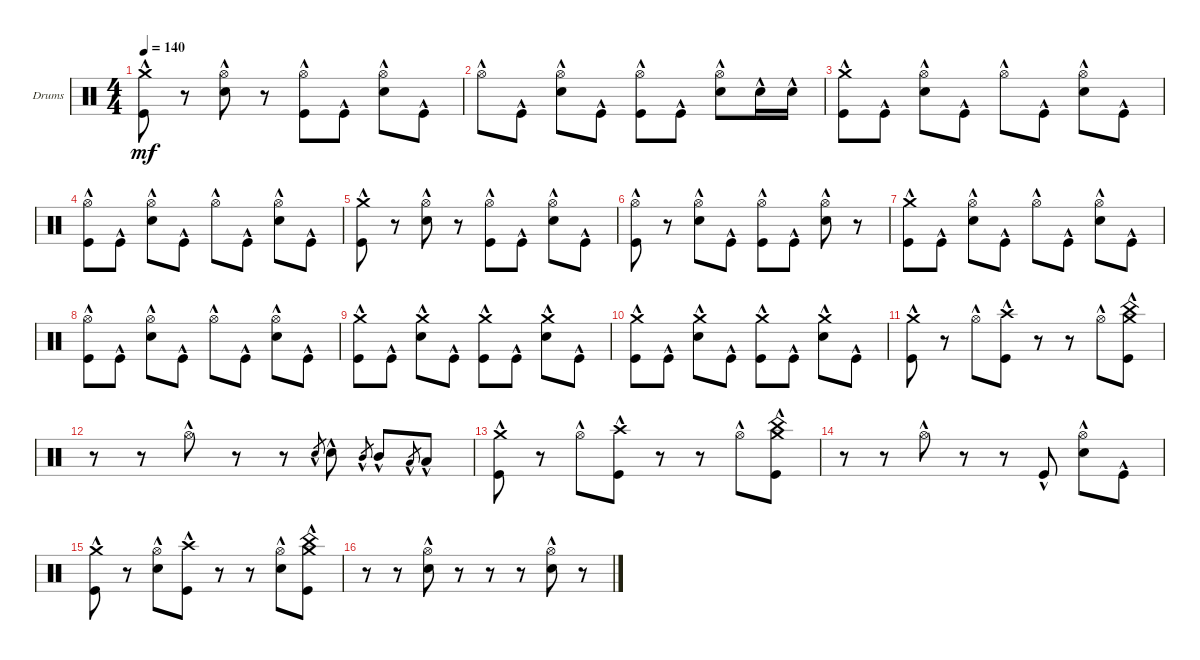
\defaultSystemsLayout 4
\bracketExtendMode groupsimilarinstruments
\firstSystemTrackNameOrientation horizontal
\otherSystemsTrackNameOrientation horizontal
\track ("Drumkit" "Drums") {instrument percussion}
\staff {score}
\articulation defaults
\ts (4 4)
\tempo 140
\clef neutral
\ks c
("Kick (hit)"{hac} "Crash medium (hit)"{hac}).8{dy mf} r.8 ("Hi-Hat (open)"{hac} "Snare (hit) 2"{hac}).8 r.8 ("Hi-Hat (open)"{hac} "Kick (hit)"{hac}).8 "Kick (hit)"{hac}.8 ("Hi-Hat (open)"{hac} "Snare (hit) 2"{hac}).8 "Kick (hit)"{hac}.8 |
"Hi-Hat (open)"{hac}.8 "Kick (hit)"{hac}.8 ("Hi-Hat (open)"{hac} "Snare (hit) 2"{hac}).8 "Kick (hit)"{hac}.8 ("Hi-Hat (open)"{hac} "Kick (hit)"{hac}).8 "Kick (hit)"{hac}.8 ("Hi-Hat (open)"{hac} "Snare (hit) 2"{hac}).8 "Snare (hit) 2"{hac}.16 "Snare (hit) 2"{hac}.16 |
("Kick (hit)"{hac} "Crash medium (hit)"{hac}).8 "Kick (hit)"{hac}.8 ("Hi-Hat (open)"{hac} "Snare (hit) 2"{hac}).8 "Kick (hit)"{hac}.8 "Hi-Hat (open)"{hac}.8 "Kick (hit)"{hac}.8 ("Hi-Hat (open)"{hac} "Snare (hit) 2"{hac}).8 "Kick (hit)"{hac}.8 |
("Hi-Hat (open)"{hac} "Kick (hit)"{hac}).8 "Kick (hit)"{hac}.8 ("Hi-Hat (open)"{hac} "Snare (hit) 2"{hac}).8 "Kick (hit)"{hac}.8 "Hi-Hat (open)"{hac}.8 "Kick (hit)"{hac}.8 ("Hi-Hat (open)"{hac} "Snare (hit) 2"{hac}).8 "Kick (hit)"{hac}.8 |
("Kick (hit)"{hac} "Crash medium (hit)"{hac}).8 r.8 ("Hi-Hat (open)"{hac} "Snare (hit) 2"{hac}).8 r.8 ("Hi-Hat (open)"{hac} "Kick (hit)"{hac}).8 "Kick (hit)"{hac}.8 ("Hi-Hat (open)"{hac} "Snare (hit) 2"{hac}).8 "Kick (hit)"{hac}.8 |
("Hi-Hat (open)"{hac} "Kick (hit)"{hac}).8 r.8 ("Hi-Hat (open)"{hac} "Snare (hit) 2"{hac}).8 "Kick (hit)"{hac}.8 ("Hi-Hat (open)"{hac} "Kick (hit)"{hac}).8 "Kick (hit)"{hac}.8 ("Hi-Hat (open)"{hac} "Snare (hit) 2"{hac}).8 r.8 |
("Kick (hit)"{hac} "Crash medium (hit)"{hac}).8 "Kick (hit)"{hac}.8 ("Hi-Hat (open)"{hac} "Snare (hit) 2"{hac}).8 "Kick (hit)"{hac}.8 "Hi-Hat (open)"{hac}.8 "Kick (hit)"{hac}.8 ("Hi-Hat (open)"{hac} "Snare (hit) 2"{hac}).8 "Kick (hit)"{hac}.8 |
("Hi-Hat (open)"{hac} "Kick (hit)"{hac}).8 "Kick (hit)"{hac}.8 ("Hi-Hat (open)"{hac} "Snare (hit) 2"{hac}).8 "Kick (hit)"{hac}.8 "Hi-Hat (open)"{hac}.8 "Kick (hit)"{hac}.8 ("Hi-Hat (open)"{hac} "Snare (hit) 2"{hac}).8 "Kick (hit)"{hac}.8 |
("Kick (hit)"{hac} "Crash medium (hit)"{hac}).8 "Kick (hit)"{hac}.8 ("Snare (hit) 2"{hac} "Crash medium (hit)"{hac}).8 "Kick (hit)"{hac}.8 ("Kick (hit)"{hac} "Crash medium (hit)"{hac}).8 "Kick (hit)"{hac}.8 ("Snare (hit) 2"{hac} "Crash medium (hit)"{hac}).8 "Kick (hit)"{hac}.8 |
("Kick (hit)"{hac} "Crash medium (hit)"{hac}).8 "Kick (hit)"{hac}.8 ("Snare (hit) 2"{hac} "Crash medium (hit)"{hac}).8 "Kick (hit)"{hac}.8 ("Kick (hit)"{hac} "Crash medium (hit)"{hac}).8 "Kick (hit)"{hac}.8 ("Snare (hit) 2"{hac} "Crash medium (hit)"{hac}).8 "Kick (hit)"{hac}.8 |
("Kick (hit)"{hac} "Crash medium (hit)"{hac}).8 r.8 "Hi-Hat (open)"{hac}.8 ("Kick (hit)"{hac} "Crash high (hit)"{hac}).8 r.8 r.8 "Hi-Hat (open)"{hac}.8 ("Kick (hit)"{hac} "China (hit)"{hac} "Crash medium (hit)"{hac}).8 |
r.8 r.8 "Hi-Hat (open)"{hac}.8 r.8 r.8 "Snare (hit) 2"{hac}.8{gr} "Snare (hit) 2"{hac}.8 "Mid Tom (hit)"{hac}.8{gr} "Mid Tom (hit)"{hac}.8 "Low Tom (hit)"{hac}.8{gr} "Low Tom (hit)"{hac}.8 |
("Kick (hit)"{hac} "Crash medium (hit)"{hac}).8 r.8 "Hi-Hat (open)"{hac}.8 ("Kick (hit)"{hac} "Crash high (hit)"{hac}).8 r.8 r.8 "Hi-Hat (open)"{hac}.8 ("Kick (hit)"{hac} "China (hit)"{hac} "Crash medium (hit)"{hac}).8 |
r.8 r.8 "Hi-Hat (open)"{hac}.8 r.8 r.8 "Kick (hit)"{hac}.8 ("Hi-Hat (open)"{hac} "Snare (hit) 2"{hac}).8 "Kick (hit)"{hac}.8 |
("Kick (hit)"{hac} "Crash medium (hit)"{hac}).8 r.8 ("Hi-Hat (open)"{hac} "Snare (hit) 2"{hac}).8 ("Kick (hit)"{hac} "Crash high (hit)"{hac}).8 r.8 r.8 ("Hi-Hat (open)"{hac} "Snare (hit) 2"{hac}).8 ("Kick (hit)"{hac} "China (hit)"{hac} "Crash medium (hit)"{hac}).8 |
r.8 r.8 ("Hi-Hat (open)"{hac} "Snare (hit) 2"{hac}).8 r.8 r.8 r.8 ("Hi-Hat (open)"{hac} "Snare (hit) 2"{hac}).8 r.8
